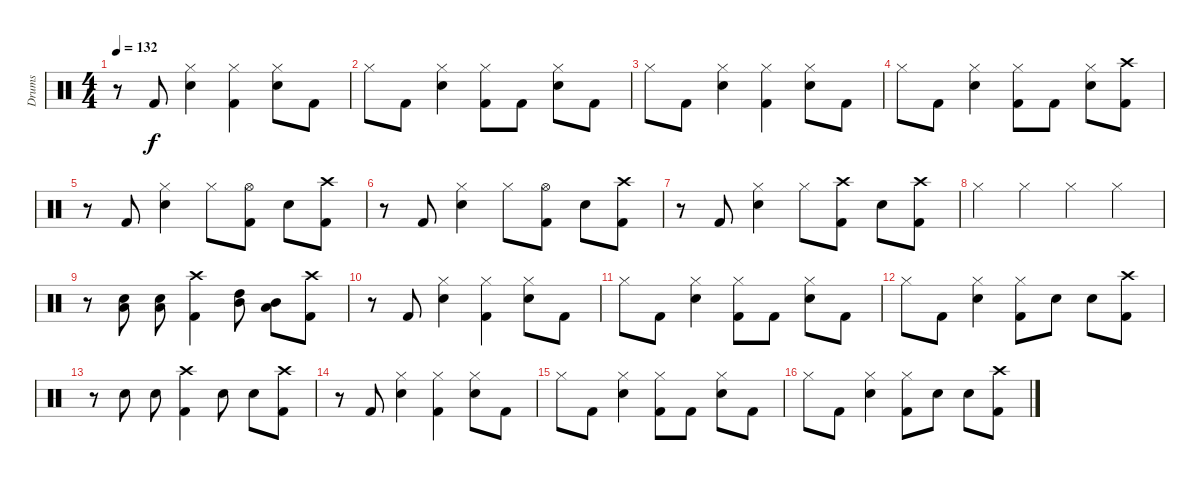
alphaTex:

\track ("Drums" "Drums") {instrument percussion}
\staff {score}
\articulation defaults
\ts (4 4)
\tempo 132
\clef neutral
\ks c
r.8{dy f} "Kick (hit) 2".8 ("Hi-Hat (closed)" "Electric Snare (hit)").4 ("Hi-Hat (closed)" "Kick (hit) 2").4 ("Hi-Hat (closed)" "Electric Snare (hit)").8 "Kick (hit) 2".8 |
"Hi-Hat (closed)".8 "Kick (hit) 2".8 ("Hi-Hat (closed)" "Electric Snare (hit)").4 ("Hi-Hat (closed)" "Kick (hit) 2").8 "Kick (hit) 2".8 ("Hi-Hat (closed)" "Electric Snare (hit)").8 "Kick (hit) 2".8 |
"Hi-Hat (closed)".8 "Kick (hit) 2".8 ("Hi-Hat (closed)" "Electric Snare (hit)").4 ("Hi-Hat (closed)" "Kick (hit) 2").4 ("Hi-Hat (closed)" "Electric Snare (hit)").8 "Kick (hit) 2".8 |
"Hi-Hat (closed)".8 "Kick (hit) 2".8 ("Hi-Hat (closed)" "Electric Snare (hit)").4 ("Hi-Hat (closed)" "Kick (hit) 2").8 "Kick (hit) 2".8 ("Hi-Hat (closed)" "Electric Snare (hit)").8 ("Crash high (hit)" "Kick (hit) 2").8 |
r.8 "Kick (hit) 2".8 ("Hi-Hat (closed)" "Electric Snare (hit)").4 "Hi-Hat (closed)".8 ("Hi-Hat (open)" "Kick (hit) 2").8 "Electric Snare (hit)".8 ("Crash high (hit)" "Kick (hit) 2").8 |
r.8 "Kick (hit) 2".8 ("Hi-Hat (closed)" "Electric Snare (hit)").4 "Hi-Hat (closed)".8 ("Hi-Hat (open)" "Kick (hit) 2").8 "Electric Snare (hit)".8 ("Crash high (hit)" "Kick (hit) 2").8 |
r.8 "Kick (hit) 2".8 ("Hi-Hat (closed)" "Electric Snare (hit)").4 "Hi-Hat (closed)".8 ("Crash high (hit)" "Kick (hit) 2").8 "Electric Snare (hit)".8 ("Crash high (hit)" "Kick (hit) 2").8 |
"Hi-Hat (closed)".4 "Hi-Hat (closed)".4 "Hi-Hat (closed)".4 "Hi-Hat (closed)".4 |
r.8 ("Electric Snare (hit)" "Low Tom (hit)").8 ("Electric Snare (hit)" "Low Tom (hit)").8 ("Crash high (hit)" "Kick (hit) 2").4 ("Mid Tom (hit)" "High Tom (hit)").8 ("Mid Tom (hit)" "Low Tom (hit)").8 ("Crash high (hit)" "Kick (hit) 2").8 |
r.8 "Kick (hit) 2".8 ("Hi-Hat (closed)" "Electric Snare (hit)").4 ("Hi-Hat (closed)" "Kick (hit) 2").4 ("Hi-Hat (closed)" "Electric Snare (hit)").8 "Kick (hit) 2".8 |
"Hi-Hat (closed)".8 "Kick (hit) 2".8 ("Hi-Hat (closed)" "Electric Snare (hit)").4 ("Hi-Hat (closed)" "Kick (hit) 2").8 "Kick (hit) 2".8 ("Hi-Hat (closed)" "Electric Snare (hit)").8 "Kick (hit) 2".8 |
"Hi-Hat (closed)".8 "Kick (hit) 2".8 ("Hi-Hat (closed)" "Electric Snare (hit)").4 ("Hi-Hat (closed)" "Kick (hit) 2").8 "Electric Snare (hit)".8 "Electric Snare (hit)".8 ("Crash high (hit)" "Kick (hit) 2").8 |
r.8 "Electric Snare (hit)".8 "Electric Snare (hit)".8 ("Crash high (hit)" "Kick (hit) 2").4 "Electric Snare (hit)".8 "Electric Snare (hit)".8 ("Crash high (hit)" "Kick (hit) 2").8 |
r.8 "Kick (hit) 2".8 ("Hi-Hat (closed)" "Electric Snare (hit)").4 ("Hi-Hat (closed)" "Kick (hit) 2").4 ("Hi-Hat (closed)" "Electric Snare (hit)").8 "Kick (hit) 2".8 |
"Hi-Hat (closed)".8 "Kick (hit) 2".8 ("Hi-Hat (closed)" "Electric Snare (hit)").4 ("Hi-Hat (closed)" "Kick (hit) 2").8 "Kick (hit) 2".8 ("Hi-Hat (closed)" "Electric Snare (hit)").8 "Kick (hit) 2".8 |
"Hi-Hat (closed)".8 "Kick (hit) 2".8 ("Hi-Hat (closed)" "Electric Snare (hit)").4 ("Hi-Hat (closed)" "Kick (hit) 2").8 "Electric Snare (hit)".8 "Electric Snare (hit)".8 ("Crash high (hit)" "Kick (hit) 2").8
